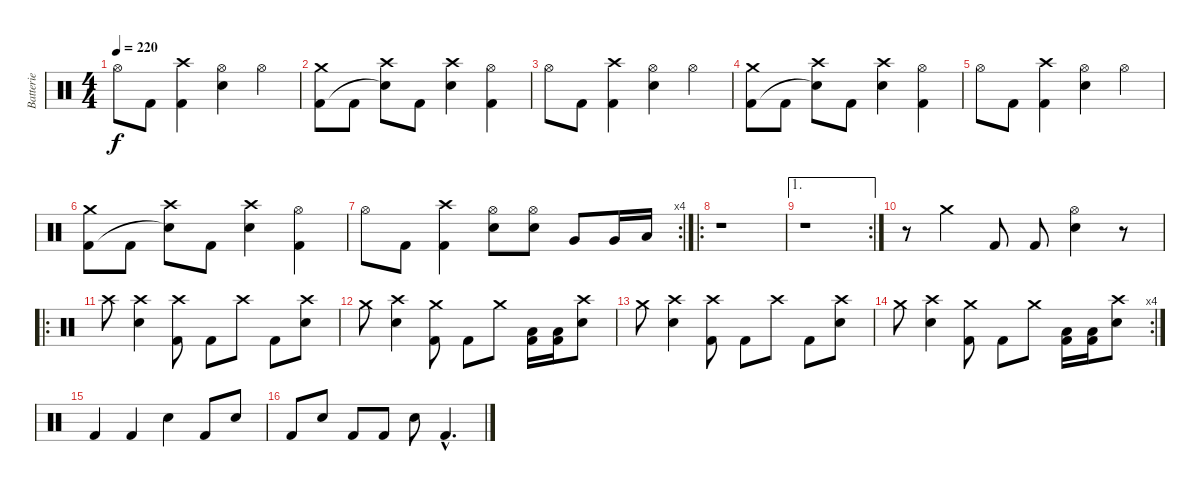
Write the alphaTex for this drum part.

\track ("Batterie" "Batterie") {instrument percussion}
\staff {score}
\articulation defaults
\ts (4 4)
\tempo 220
\clef neutral
\ks c "Hi-Hat (open)".8{dy f} "Kick (hit) 2".8
("Crash high (hit)" "Kick (hit) 2").4 ("Hi-Hat (open)" "Electric Snare (hit)").4 "Hi-Hat (open)".4 |
("Crash medium (hit)" "Kick (hit) 2").8 "Kick (hit) 2".8 ("Crash high (hit)" "Snare (hit)"{t}).8 "Kick (hit) 2".8 ("Crash high (hit)" "Electric Snare (hit)").4 ("Hi-Hat (open)" "Kick (hit) 2").4 |
"Hi-Hat (open)".8 "Kick (hit) 2".8 ("Crash high (hit)" "Kick (hit) 2").4 ("Hi-Hat (open)" "Electric Snare (hit)").4 "Hi-Hat (open)".4 |
("Crash medium (hit)" "Kick (hit) 2").8 "Kick (hit) 2".8 ("Crash high (hit)" "Snare (hit)"{t}).8 "Kick (hit) 2".8 ("Crash high (hit)" "Electric Snare (hit)").4 ("Hi-Hat (open)" "Kick (hit) 2").4 |
"Hi-Hat (open)".8 "Kick (hit) 2".8 ("Crash high (hit)" "Kick (hit) 2").4 ("Hi-Hat (open)" "Electric Snare (hit)").4 "Hi-Hat (open)".4 |
("Crash medium (hit)" "Kick (hit) 2").8 "Kick (hit) 2".8 ("Crash high (hit)" "Snare (hit)"{t}).8 "Kick (hit) 2".8 ("Crash high (hit)" "Electric Snare (hit)").4 ("Hi-Hat (open)" "Kick (hit) 2").4 |
\rc 4 "Hi-Hat (open)".8 "Kick (hit) 2".8
("Crash high (hit)" "Kick (hit) 2").4 ("Hi-Hat (open)" "Electric Snare (hit)").8 ("Hi-Hat (open)" "Electric Snare (hit)").8 "Very Low Tom (hit)".8 "Very Low Tom (hit)".16 "Low Floor Tom (hit)".16 |
\ro
r.1 |
\ae 1
\rc 2
r.1 |
r.8 "Crash medium (hit)".4 "Kick (hit) 2".8 "Kick (hit) 2".8 ("Hi-Hat (open)" "Electric Snare (hit)").4 r.8 |
\ro "Crash high (hit)".8
("Crash high (hit)" "Electric Snare (hit)").4 ("Crash high (hit)" "Kick (hit) 2").8 "Kick (hit) 2".8 "Crash high (hit)".8 "Kick (hit) 2".8 ("Crash high (hit)" "Electric Snare (hit)").8 |
"Crash medium (hit)".8 ("Crash high (hit)" "Electric Snare (hit)").4 ("Crash medium (hit)" "Kick (hit) 2").8 "Kick (hit) 2".8 "Crash medium (hit)".8 ("Low Tom (hit)" "Kick (hit) 2").16 ("Low Tom (hit)" "Kick (hit) 2").16 ("Crash high (hit)" "Electric Snare (hit)").8 |
"Crash medium (hit)".8 ("Crash high (hit)" "Electric Snare (hit)").4 ("Crash high (hit)" "Kick (hit) 2").8 "Kick (hit) 2".8 "Crash high (hit)".8 "Kick (hit) 2".8 ("Crash high (hit)" "Electric Snare (hit)").8 |
\rc 4 "Crash medium (hit)".8
("Crash high (hit)" "Electric Snare (hit)").4 ("Crash medium (hit)" "Kick (hit) 2").8 "Kick (hit) 2".8 "Crash medium (hit)".8 ("Low Tom (hit)" "Kick (hit) 2").16 ("Low Tom (hit)" "Kick (hit) 2").16 ("Crash high (hit)" "Electric Snare (hit)").8 |
"Kick (hit) 2".4{volume 12 balance 0} "Kick (hit) 2".4{balance 8} "Electric Snare (hit)".4 "Kick (hit) 2".8 "Electric Snare (hit)".8 |
"Kick (hit) 2".8{balance 16} "Electric Snare (hit)".8 "Kick (hit) 2".8 "Kick (hit) 2".8 "Electric Snare (hit)".8 "Kick (hit) 2"{hac}.4{d}
